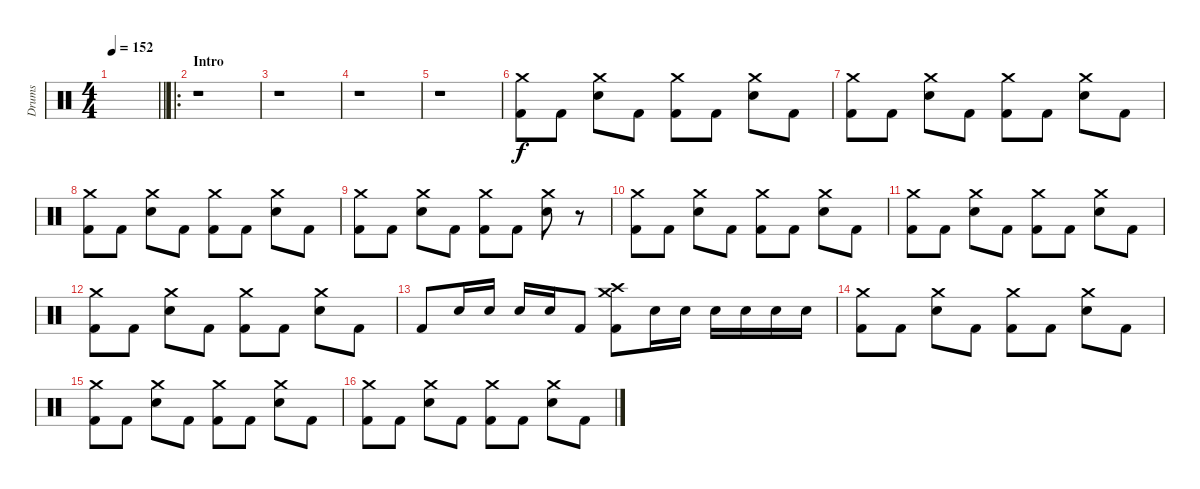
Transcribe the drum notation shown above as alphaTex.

\track ("Drums" "Drums") {instrument percussion}
\staff {score}
\articulation defaults
\ts (4 4)
\tempo 152
\clef neutral
\barLineRight lightlight
\ks c
|
\ro
\section ("" "Intro")
r.1 |
r.1 |
r.1 |
r.1 |
("Crash medium (hit)" "Kick (hit) 2").8 "Kick (hit) 2".8 ("Crash medium (hit)" "Electric Snare (hit)").8 "Kick (hit) 2".8 ("Crash medium (hit)" "Kick (hit) 2").8 "Kick (hit) 2".8 ("Crash medium (hit)" "Electric Snare (hit)").8 "Kick (hit) 2".8 |
("Crash medium (hit)" "Kick (hit) 2").8 "Kick (hit) 2".8 ("Crash medium (hit)" "Electric Snare (hit)").8 "Kick (hit) 2".8 ("Crash medium (hit)" "Kick (hit) 2").8 "Kick (hit) 2".8 ("Crash medium (hit)" "Electric Snare (hit)").8 "Kick (hit) 2".8 |
("Crash medium (hit)" "Kick (hit) 2").8 "Kick (hit) 2".8 ("Crash medium (hit)" "Electric Snare (hit)").8 "Kick (hit) 2".8 ("Crash medium (hit)" "Kick (hit) 2").8 "Kick (hit) 2".8 ("Crash medium (hit)" "Electric Snare (hit)").8 "Kick (hit) 2".8 |
("Crash medium (hit)" "Kick (hit) 2").8 "Kick (hit) 2".8 ("Crash medium (hit)" "Electric Snare (hit)").8 "Kick (hit) 2".8 ("Crash medium (hit)" "Kick (hit) 2").8 "Kick (hit) 2".8 ("Crash medium (hit)" "Electric Snare (hit)").8 r.8 |
("Crash medium (hit)" "Kick (hit) 2").8 "Kick (hit) 2".8 ("Crash medium (hit)" "Electric Snare (hit)").8 "Kick (hit) 2".8 ("Crash medium (hit)" "Kick (hit) 2").8 "Kick (hit) 2".8 ("Crash medium (hit)" "Electric Snare (hit)").8 "Kick (hit) 2".8 |
("Crash medium (hit)" "Kick (hit) 2").8 "Kick (hit) 2".8 ("Crash medium (hit)" "Electric Snare (hit)").8 "Kick (hit) 2".8 ("Crash medium (hit)" "Kick (hit) 2").8 "Kick (hit) 2".8 ("Crash medium (hit)" "Electric Snare (hit)").8 "Kick (hit) 2".8 |
("Crash medium (hit)" "Kick (hit) 2").8 "Kick (hit) 2".8 ("Crash medium (hit)" "Electric Snare (hit)").8 "Kick (hit) 2".8 ("Crash medium (hit)" "Kick (hit) 2").8 "Kick (hit) 2".8 ("Crash medium (hit)" "Electric Snare (hit)").8 "Kick (hit) 2".8 |
"Kick (hit) 2".8 "Electric Snare (hit)".16 "Electric Snare (hit)".16 "Electric Snare (hit)".16 "Electric Snare (hit)".16 "Kick (hit) 2".8 ("Crash medium (hit)" "Crash high (hit)" "Kick (hit) 2").8 "Electric Snare (hit)".16 "Electric Snare (hit)".16 "Electric Snare (hit)".16 "Electric Snare (hit)".16 "Electric Snare (hit)".16 "Electric Snare (hit)".16 |
("Crash medium (hit)" "Kick (hit) 2").8 "Kick (hit) 2".8 ("Crash medium (hit)" "Electric Snare (hit)").8 "Kick (hit) 2".8 ("Crash medium (hit)" "Kick (hit) 2").8 "Kick (hit) 2".8 ("Crash medium (hit)" "Electric Snare (hit)").8 "Kick (hit) 2".8 |
("Crash medium (hit)" "Kick (hit) 2").8 "Kick (hit) 2".8 ("Crash medium (hit)" "Electric Snare (hit)").8 "Kick (hit) 2".8 ("Crash medium (hit)" "Kick (hit) 2").8 "Kick (hit) 2".8 ("Crash medium (hit)" "Electric Snare (hit)").8 "Kick (hit) 2".8 |
("Crash medium (hit)" "Kick (hit) 2").8 "Kick (hit) 2".8 ("Crash medium (hit)" "Electric Snare (hit)").8 "Kick (hit) 2".8 ("Crash medium (hit)" "Kick (hit) 2").8 "Kick (hit) 2".8 ("Crash medium (hit)" "Electric Snare (hit)").8 "Kick (hit) 2".8
